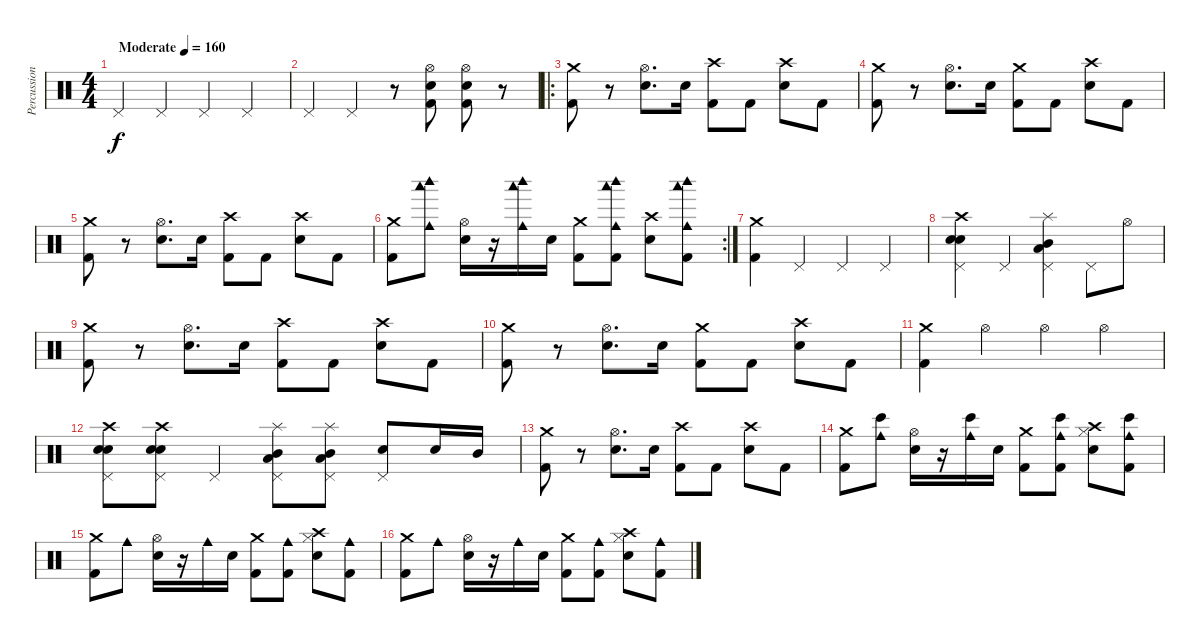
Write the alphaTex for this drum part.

\track ("Percussion" "Percussion") {instrument percussion}
\staff {score}
\articulation defaults
\ts (4 4)
\tempo (160 "Moderate")
\clef neutral
\ks c "Pedal Hi-Hat (hit)".4{dy f} "Pedal Hi-Hat (hit)".4 "Pedal Hi-Hat (hit)".4 "Pedal Hi-Hat (hit)".4
|
"Pedal Hi-Hat (hit)".4 "Pedal Hi-Hat (hit)".4 r.8 ("Hi-Hat (open)" "Electric Snare (hit)" "Kick (hit) 2").8 ("Hi-Hat (open)" "Electric Snare (hit)" "Kick (hit) 2").8 r.8 |
\ro
("Crash medium (hit)" "Kick (hit) 2").8 r.8 ("Hi-Hat (open)" "Electric Snare (hit)").8{d} "Electric Snare (hit)".16 ("Crash high (hit)" "Kick (hit) 2").8 "Kick (hit) 2".8 ("Crash high (hit)" "Electric Snare (hit)").8 "Kick (hit) 2".8 |
("Crash medium (hit)" "Kick (hit) 2").8 r.8 ("Hi-Hat (open)" "Electric Snare (hit)").8{d} "Electric Snare (hit)".16 ("Crash medium (hit)" "Kick (hit) 2").8 "Kick (hit) 2".8 ("Crash high (hit)" "Electric Snare (hit)").8 "Kick (hit) 2".8 |
("Crash medium (hit)" "Kick (hit) 2").8 r.8 ("Hi-Hat (open)" "Electric Snare (hit)").8{d} "Electric Snare (hit)".16 ("Crash high (hit)" "Kick (hit) 2").8 "Kick (hit) 2".8 ("Crash high (hit)" "Electric Snare (hit)").8 "Kick (hit) 2".8 |
\rc 2
("Crash medium (hit)" "Kick (hit) 2").8 ("Woodblock low (hit)" "Woodblock high (hit)" "Cowbell medium (hit)").8 ("Hi-Hat (open)" "Electric Snare (hit)").16 r.16 ("Woodblock low (hit)" "Woodblock high (hit)" "Cowbell medium (hit)").16 "Electric Snare (hit)".16 ("Crash medium (hit)" "Kick (hit) 2").8 ("Kick (hit) 2" "Woodblock low (hit)" "Woodblock high (hit)" "Cowbell medium (hit)").8 ("Crash high (hit)" "Electric Snare (hit)").8 ("Kick (hit) 2" "Woodblock low (hit)" "Woodblock high (hit)" "Cowbell medium (hit)").8 |
("Crash medium (hit)" "Kick (hit) 2").4 "Pedal Hi-Hat (hit)".4 "Pedal Hi-Hat (hit)".4 "Pedal Hi-Hat (hit)".4 |
("Crash high (hit)" "Electric Snare (hit)" "Electric Snare (hit)" "Pedal Hi-Hat (hit)").4{bu 60} "Pedal Hi-Hat (hit)".4 ("Mid Tom (hit)" "Low Tom (hit)" "Splash (hit)" "Pedal Hi-Hat (hit)").4{bu 60} "Pedal Hi-Hat (hit)".8 "Hi-Hat (open)".8 |
("Crash medium (hit)" "Kick (hit) 2").8 r.8 ("Hi-Hat (open)" "Electric Snare (hit)").8{d} "Electric Snare (hit)".16 ("Crash high (hit)" "Kick (hit) 2").8 "Kick (hit) 2".8 ("Crash high (hit)" "Electric Snare (hit)").8 "Kick (hit) 2".8 |
("Crash medium (hit)" "Kick (hit) 2").8 r.8 ("Hi-Hat (open)" "Electric Snare (hit)").8{d} "Electric Snare (hit)".16 ("Crash medium (hit)" "Kick (hit) 2").8 "Kick (hit) 2".8 ("Crash high (hit)" "Electric Snare (hit)").8 "Kick (hit) 2".8 |
("Crash medium (hit)" "Kick (hit) 2").4 "Hi-Hat (open)".4 "Hi-Hat (open)".4 "Hi-Hat (open)".4 |
("Crash high (hit)" "Electric Snare (hit)" "Electric Snare (hit)" "Pedal Hi-Hat (hit)").8{bu 60} ("Crash high (hit)" "Electric Snare (hit)" "Electric Snare (hit)" "Pedal Hi-Hat (hit)").8{bu 60} "Pedal Hi-Hat (hit)".4 ("Mid Tom (hit)" "Low Tom (hit)" "Splash (hit)" "Pedal Hi-Hat (hit)").8{bu 60} ("Mid Tom (hit)" "Low Tom (hit)" "Splash (hit)" "Pedal Hi-Hat (hit)").8{bu 60} ("Electric Snare (hit)" "Pedal Hi-Hat (hit)").8 "Electric Snare (hit)".16 "Mid Tom (hit)".16 |
("Crash medium (hit)" "Kick (hit) 2").8 r.8 ("Hi-Hat (open)" "Electric Snare (hit)").8{d} "Electric Snare (hit)".16 ("Crash high (hit)" "Kick (hit) 2").8 "Kick (hit) 2".8 ("Crash high (hit)" "Electric Snare (hit)").8 "Kick (hit) 2".8 |
("Crash medium (hit)" "Kick (hit) 2").8 ("Bongo High (hit)" "Cowbell medium (hit)").8 ("Hi-Hat (open)" "Electric Snare (hit)").16 r.16 ("Bongo High (hit)" "Cowbell medium (hit)").16 "Electric Snare (hit)".16 ("Crash medium (hit)" "Kick (hit) 2").8 ("Kick (hit) 2" "Bongo High (hit)" "Cowbell medium (hit)").8 ("Crash high (hit)" "Electric Snare (hit)" "Hi-Hat (closed)").8 ("Kick (hit) 2" "Bongo High (hit)" "Cowbell medium (hit)").8 |
("Crash medium (hit)" "Kick (hit) 2").8 "Cowbell medium (hit)".8 ("Hi-Hat (open)" "Electric Snare (hit)").16 r.16 "Cowbell medium (hit)".16 "Electric Snare (hit)".16 ("Crash medium (hit)" "Kick (hit) 2").8 ("Kick (hit) 2" "Cowbell medium (hit)").8 ("Crash high (hit)" "Electric Snare (hit)" "Hi-Hat (closed)").8 ("Kick (hit) 2" "Cowbell medium (hit)").8 |
("Crash medium (hit)" "Kick (hit) 2").8 "Cowbell medium (hit)".8 ("Hi-Hat (open)" "Electric Snare (hit)").16 r.16 "Cowbell medium (hit)".16 "Electric Snare (hit)".16 ("Crash medium (hit)" "Kick (hit) 2").8 ("Kick (hit) 2" "Cowbell medium (hit)").8 ("Crash high (hit)" "Electric Snare (hit)" "Hi-Hat (closed)").8 ("Kick (hit) 2" "Cowbell medium (hit)").8
